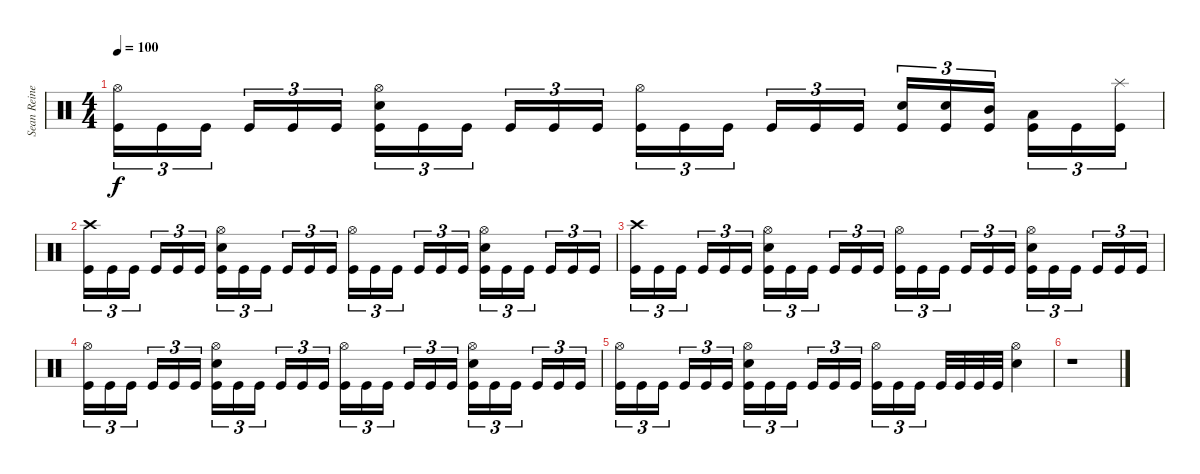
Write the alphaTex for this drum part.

\track ("Sean Reinert " "Sean Reine") {instrument percussion}
\staff {score}
\articulation defaults
\ts (4 4)
\tempo 100
\clef neutral
\ks c
("Hi-Hat (open)" "Kick (hit)").16{tu (3 2) dy f} "Kick (hit)".16{tu (3 2)} "Kick (hit)".16{tu (3 2)} "Kick (hit)".16{tu (3 2)} "Kick (hit)".16{tu (3 2)} "Kick (hit)".16{tu (3 2)} ("Hi-Hat (open)" "Electric Snare (hit)" "Kick (hit)").16{tu (3 2)} "Kick (hit)".16{tu (3 2)} "Kick (hit)".16{tu (3 2)} "Kick (hit)".16{tu (3 2)} "Kick (hit)".16{tu (3 2)} "Kick (hit)".16{tu (3 2)} ("Hi-Hat (open)" "Kick (hit)").16{tu (3 2)} "Kick (hit)".16{tu (3 2)} "Kick (hit)".16{tu (3 2)} "Kick (hit)".16{tu (3 2)} "Kick (hit)".16{tu (3 2)} "Kick (hit)".16{tu (3 2)} ("Electric Snare (hit)" "Kick (hit)").16{tu (3 2)} ("Electric Snare (hit)" "Kick (hit)").16{tu (3 2)} ("Mid Tom (hit)" "Kick (hit)").16{tu (3 2)} ("Low Tom (hit)" "Kick (hit)").16{tu (3 2)} "Kick (hit)".16{tu (3 2)} ("Splash (hit)" "Kick (hit)").16{tu (3 2)} |
("Crash high (hit)" "Kick (hit)").16{tu (3 2)} "Kick (hit)".16{tu (3 2)} "Kick (hit)".16{tu (3 2)} "Kick (hit)".16{tu (3 2)} "Kick (hit)".16{tu (3 2)} "Kick (hit)".16{tu (3 2)} ("Hi-Hat (open)" "Electric Snare (hit)" "Kick (hit)").16{tu (3 2)} "Kick (hit)".16{tu (3 2)} "Kick (hit)".16{tu (3 2)} "Kick (hit)".16{tu (3 2)} "Kick (hit)".16{tu (3 2)} "Kick (hit)".16{tu (3 2)} ("Hi-Hat (open)" "Kick (hit)").16{tu (3 2)} "Kick (hit)".16{tu (3 2)} "Kick (hit)".16{tu (3 2)} "Kick (hit)".16{tu (3 2)} "Kick (hit)".16{tu (3 2)} "Kick (hit)".16{tu (3 2)} ("Hi-Hat (open)" "Electric Snare (hit)" "Kick (hit)").16{tu (3 2)} "Kick (hit)".16{tu (3 2)} "Kick (hit)".16{tu (3 2)} "Kick (hit)".16{tu (3 2)} "Kick (hit)".16{tu (3 2)} "Kick (hit)".16{tu (3 2)} |
("Crash high (hit)" "Kick (hit)").16{tu (3 2)} "Kick (hit)".16{tu (3 2)} "Kick (hit)".16{tu (3 2)} "Kick (hit)".16{tu (3 2)} "Kick (hit)".16{tu (3 2)} "Kick (hit)".16{tu (3 2)} ("Hi-Hat (open)" "Electric Snare (hit)" "Kick (hit)").16{tu (3 2)} "Kick (hit)".16{tu (3 2)} "Kick (hit)".16{tu (3 2)} "Kick (hit)".16{tu (3 2)} "Kick (hit)".16{tu (3 2)} "Kick (hit)".16{tu (3 2)} ("Hi-Hat (open)" "Kick (hit)").16{tu (3 2)} "Kick (hit)".16{tu (3 2)} "Kick (hit)".16{tu (3 2)} "Kick (hit)".16{tu (3 2)} "Kick (hit)".16{tu (3 2)} "Kick (hit)".16{tu (3 2)} ("Hi-Hat (open)" "Electric Snare (hit)" "Kick (hit)").16{tu (3 2)} "Kick (hit)".16{tu (3 2)} "Kick (hit)".16{tu (3 2)} "Kick (hit)".16{tu (3 2)} "Kick (hit)".16{tu (3 2)} "Kick (hit)".16{tu (3 2)} |
("Hi-Hat (open)" "Kick (hit)").16{tu (3 2)} "Kick (hit)".16{tu (3 2)} "Kick (hit)".16{tu (3 2)} "Kick (hit)".16{tu (3 2)} "Kick (hit)".16{tu (3 2)} "Kick (hit)".16{tu (3 2)} ("Hi-Hat (open)" "Electric Snare (hit)" "Kick (hit)").16{tu (3 2)} "Kick (hit)".16{tu (3 2)} "Kick (hit)".16{tu (3 2)} "Kick (hit)".16{tu (3 2)} "Kick (hit)".16{tu (3 2)} "Kick (hit)".16{tu (3 2)} ("Hi-Hat (open)" "Kick (hit)").16{tu (3 2)} "Kick (hit)".16{tu (3 2)} "Kick (hit)".16{tu (3 2)} "Kick (hit)".16{tu (3 2)} "Kick (hit)".16{tu (3 2)} "Kick (hit)".16{tu (3 2)} ("Hi-Hat (open)" "Electric Snare (hit)" "Kick (hit)").16{tu (3 2)} "Kick (hit)".16{tu (3 2)} "Kick (hit)".16{tu (3 2)} "Kick (hit)".16{tu (3 2)} "Kick (hit)".16{tu (3 2)} "Kick (hit)".16{tu (3 2)} |
("Hi-Hat (open)" "Kick (hit)").16{tu (3 2)} "Kick (hit)".16{tu (3 2)} "Kick (hit)".16{tu (3 2)} "Kick (hit)".16{tu (3 2)} "Kick (hit)".16{tu (3 2)} "Kick (hit)".16{tu (3 2)} ("Hi-Hat (open)" "Electric Snare (hit)" "Kick (hit)").16{tu (3 2)} "Kick (hit)".16{tu (3 2)} "Kick (hit)".16{tu (3 2)} "Kick (hit)".16{tu (3 2)} "Kick (hit)".16{tu (3 2)} "Kick (hit)".16{tu (3 2)} ("Hi-Hat (open)" "Kick (hit)").16{tu (3 2)} "Kick (hit)".16{tu (3 2)} "Kick (hit)".16{tu (3 2)} "Kick (hit)".32 "Kick (hit)".32 "Kick (hit)".32 "Kick (hit)".32 ("Hi-Hat (open)" "Electric Snare (hit)").4 |
r.1
